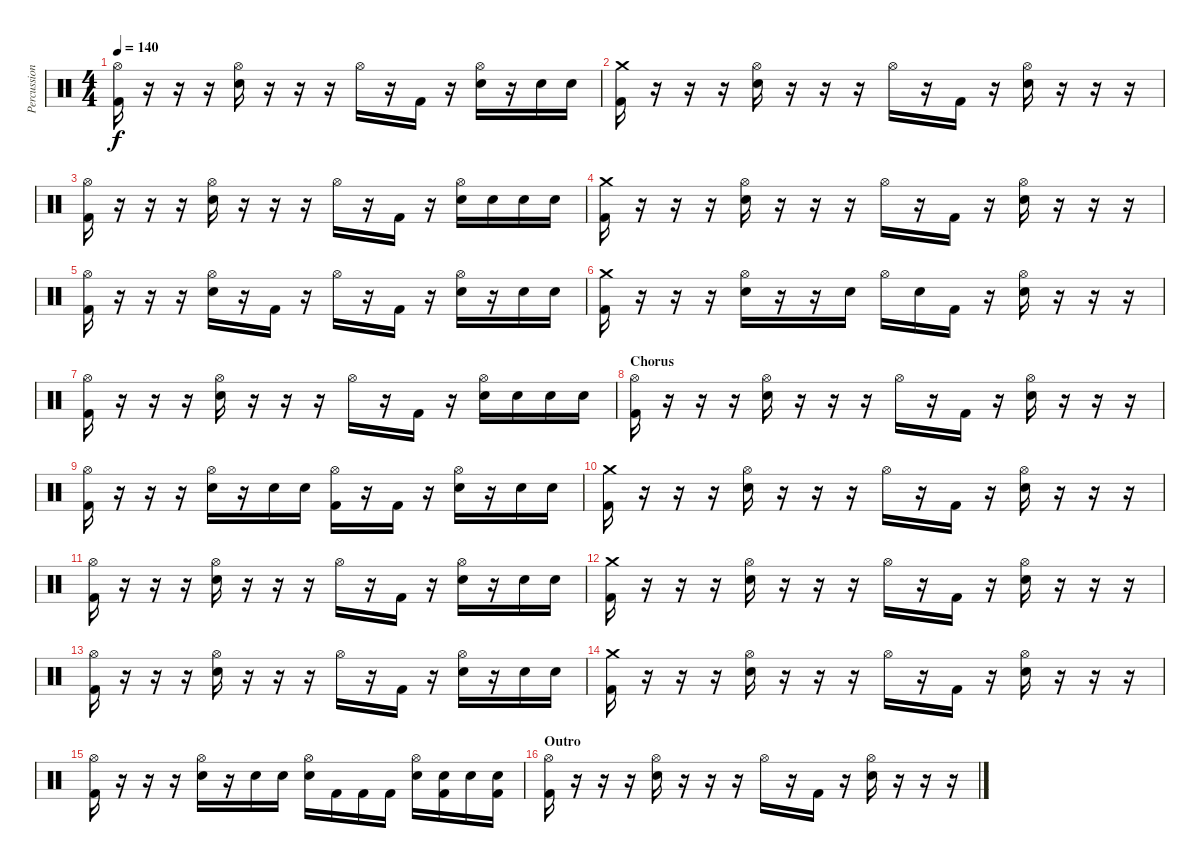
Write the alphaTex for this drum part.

\track ("Percussion" "Percussion") {instrument percussion}
\staff {score}
\articulation defaults
\ts (4 4)
\tempo 140
\clef neutral
\ks c
("Hi-Hat (open)" "Kick (hit) 2").16{dy f} r.16 r.16 r.16 ("Hi-Hat (open)" "Snare (hit) 2").16 r.16 r.16 r.16 "Hi-Hat (open)".16 r.16 "Kick (hit) 2".16 r.16 ("Hi-Hat (open)" "Snare (hit) 2").16 r.16 "Snare (hit) 2".16 "Snare (hit) 2".16 |
("Crash medium (hit)" "Kick (hit) 2").16 r.16 r.16 r.16 ("Hi-Hat (open)" "Snare (hit) 2").16 r.16 r.16 r.16 "Hi-Hat (open)".16 r.16 "Kick (hit) 2".16 r.16 ("Hi-Hat (open)" "Snare (hit) 2").16 r.16 r.16 r.16 |
("Hi-Hat (open)" "Kick (hit) 2").16 r.16 r.16 r.16 ("Hi-Hat (open)" "Snare (hit) 2").16 r.16 r.16 r.16 "Hi-Hat (open)".16 r.16 "Kick (hit) 2".16 r.16 ("Hi-Hat (open)" "Snare (hit) 2").16 "Snare (hit) 2".16 "Snare (hit) 2".16 "Snare (hit) 2".16 |
("Crash medium (hit)" "Kick (hit) 2").16 r.16 r.16 r.16 ("Hi-Hat (open)" "Snare (hit) 2").16 r.16 r.16 r.16 "Hi-Hat (open)".16 r.16 "Kick (hit) 2".16 r.16 ("Hi-Hat (open)" "Snare (hit) 2").16 r.16 r.16 r.16 |
("Hi-Hat (open)" "Kick (hit) 2").16 r.16 r.16 r.16 ("Hi-Hat (open)" "Snare (hit) 2").16 r.16 "Kick (hit) 2".16 r.16 "Hi-Hat (open)".16 r.16 "Kick (hit) 2".16 r.16 ("Hi-Hat (open)" "Snare (hit) 2").16 r.16 "Snare (hit) 2".16 "Snare (hit) 2".16 |
("Crash medium (hit)" "Kick (hit) 2").16 r.16 r.16 r.16 ("Hi-Hat (open)" "Snare (hit) 2").16 r.16 r.16 "Snare (hit) 2".16 "Hi-Hat (open)".16 "Snare (hit) 2".16 "Kick (hit) 2".16 r.16 ("Hi-Hat (open)" "Snare (hit) 2").16 r.16 r.16 r.16 |
("Hi-Hat (open)" "Kick (hit) 2").16 r.16 r.16 r.16 ("Hi-Hat (open)" "Snare (hit) 2").16 r.16 r.16 r.16 "Hi-Hat (open)".16 r.16 "Kick (hit) 2".16 r.16 ("Hi-Hat (open)" "Snare (hit) 2").16 "Snare (hit) 2".16 "Snare (hit) 2".16 "Snare (hit) 2".16 |
\section ("" "Chorus")
("Hi-Hat (open)" "Kick (hit) 2").16 r.16 r.16 r.16 ("Hi-Hat (open)" "Snare (hit) 2").16 r.16 r.16 r.16 "Hi-Hat (open)".16 r.16 "Kick (hit) 2".16 r.16 ("Hi-Hat (open)" "Snare (hit) 2").16 r.16 r.16 r.16 |
("Hi-Hat (open)" "Kick (hit) 2").16 r.16 r.16 r.16 ("Hi-Hat (open)" "Snare (hit) 2").16 r.16 "Snare (hit) 2".16 "Snare (hit) 2".16 ("Hi-Hat (open)" "Kick (hit) 2").16 r.16 "Kick (hit) 2".16 r.16 ("Hi-Hat (open)" "Snare (hit) 2").16 r.16 "Snare (hit) 2".16 "Snare (hit) 2".16 |
("Crash medium (hit)" "Kick (hit) 2").16 r.16 r.16 r.16 ("Hi-Hat (open)" "Snare (hit) 2").16 r.16 r.16 r.16 "Hi-Hat (open)".16 r.16 "Kick (hit) 2".16 r.16 ("Hi-Hat (open)" "Snare (hit) 2").16 r.16 r.16 r.16 |
("Hi-Hat (open)" "Kick (hit) 2").16 r.16 r.16 r.16 ("Hi-Hat (open)" "Snare (hit) 2").16 r.16 r.16 r.16 "Hi-Hat (open)".16 r.16 "Kick (hit) 2".16 r.16 ("Hi-Hat (open)" "Snare (hit) 2").16 r.16 "Snare (hit) 2".16 "Snare (hit) 2".16 |
("Crash medium (hit)" "Kick (hit) 2").16 r.16 r.16 r.16 ("Hi-Hat (open)" "Snare (hit) 2").16 r.16 r.16 r.16 "Hi-Hat (open)".16 r.16 "Kick (hit) 2".16 r.16 ("Hi-Hat (open)" "Snare (hit) 2").16 r.16 r.16 r.16 |
("Hi-Hat (open)" "Kick (hit) 2").16 r.16 r.16 r.16 ("Hi-Hat (open)" "Snare (hit) 2").16 r.16 r.16 r.16 "Hi-Hat (open)".16 r.16 "Kick (hit) 2".16 r.16 ("Hi-Hat (open)" "Snare (hit) 2").16 r.16 "Snare (hit) 2".16 "Snare (hit) 2".16 |
("Crash medium (hit)" "Kick (hit) 2").16 r.16 r.16 r.16 ("Hi-Hat (open)" "Snare (hit) 2").16 r.16 r.16 r.16 "Hi-Hat (open)".16 r.16 "Kick (hit) 2".16 r.16 ("Hi-Hat (open)" "Snare (hit) 2").16 r.16 r.16 r.16 |
("Hi-Hat (open)" "Kick (hit) 2").16 r.16 r.16 r.16 ("Hi-Hat (open)" "Snare (hit) 2").16 r.16 "Snare (hit) 2".16 "Snare (hit) 2".16 ("Hi-Hat (open)" "Snare (hit) 2").16 "Kick (hit) 2".16 "Kick (hit) 2".16 "Kick (hit) 2".16 ("Hi-Hat (open)" "Snare (hit) 2").16 ("Snare (hit) 2" "Kick (hit) 2").16 "Snare (hit) 2".16 ("Snare (hit) 2" "Kick (hit) 2").16 |
\section ("" "Outro")
("Hi-Hat (open)" "Kick (hit) 2").16 r.16 r.16 r.16 ("Hi-Hat (open)" "Snare (hit) 2").16 r.16 r.16 r.16 "Hi-Hat (open)".16 r.16 "Kick (hit) 2".16 r.16 ("Hi-Hat (open)" "Snare (hit) 2").16 r.16 r.16 r.16
